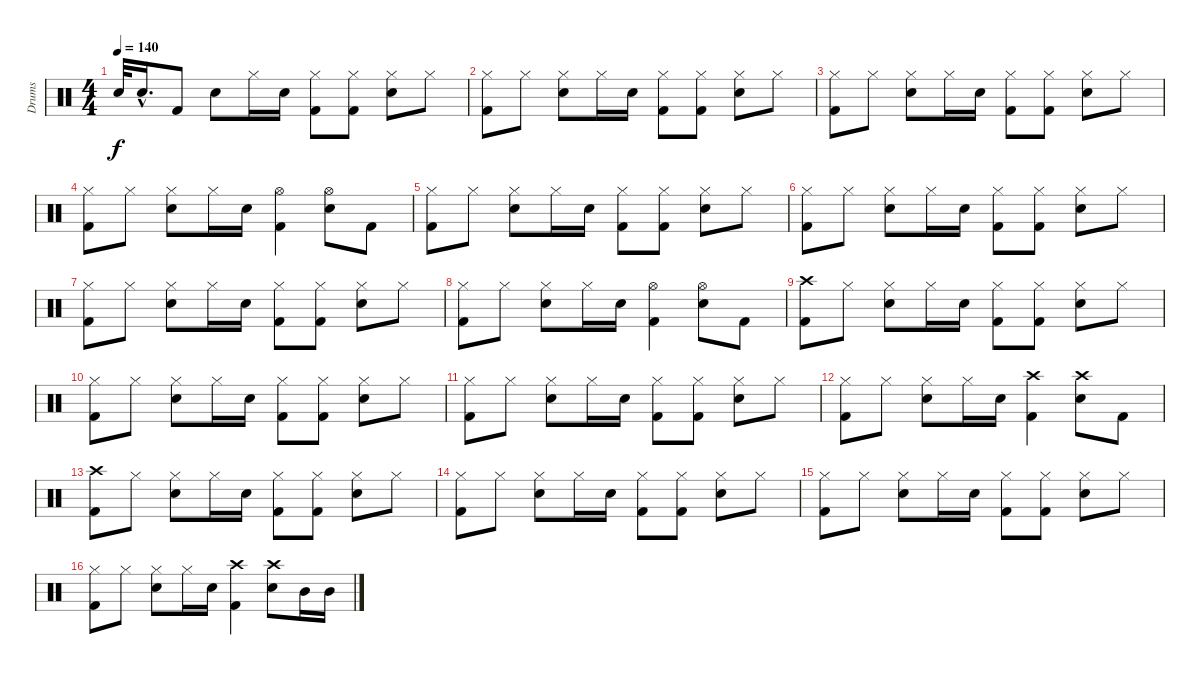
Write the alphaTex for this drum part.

\track ("Drums" "Drums") {instrument percussion}
\staff {score}
\articulation defaults
\ts (4 4)
\tempo 140
\clef neutral
\ks c "Snare (hit) 2".32{dy f} "Snare (hit) 2"{hac}.16{d} "Kick (hit) 2".8 "Snare (hit) 2".8 "Hi-Hat (closed)".16 "Snare (hit) 2".16
("Hi-Hat (closed)" "Kick (hit) 2").8 ("Hi-Hat (closed)" "Kick (hit) 2").8 ("Hi-Hat (closed)" "Snare (hit) 2").8 "Hi-Hat (closed)".8 |
("Hi-Hat (closed)" "Kick (hit) 2").8 "Hi-Hat (closed)".8 ("Hi-Hat (closed)" "Snare (hit) 2").8 "Hi-Hat (closed)".16 "Snare (hit) 2".16 ("Hi-Hat (closed)" "Kick (hit) 2").8 ("Hi-Hat (closed)" "Kick (hit) 2").8 ("Hi-Hat (closed)" "Snare (hit) 2").8 "Hi-Hat (closed)".8 |
("Hi-Hat (closed)" "Kick (hit) 2").8 "Hi-Hat (closed)".8 ("Hi-Hat (closed)" "Snare (hit) 2").8 "Hi-Hat (closed)".16 "Snare (hit) 2".16 ("Hi-Hat (closed)" "Kick (hit) 2").8 ("Hi-Hat (closed)" "Kick (hit) 2").8 ("Hi-Hat (closed)" "Snare (hit) 2").8 "Hi-Hat (closed)".8 |
("Hi-Hat (closed)" "Kick (hit) 2").8 "Hi-Hat (closed)".8 ("Hi-Hat (closed)" "Snare (hit) 2").8 "Hi-Hat (closed)".16 "Snare (hit) 2".16 ("Hi-Hat (open)" "Kick (hit) 2").4 ("Hi-Hat (open)" "Snare (hit) 2").8 "Kick (hit) 2".8 |
("Hi-Hat (closed)" "Kick (hit) 2").8 "Hi-Hat (closed)".8 ("Hi-Hat (closed)" "Snare (hit) 2").8 "Hi-Hat (closed)".16 "Snare (hit) 2".16 ("Hi-Hat (closed)" "Kick (hit) 2").8 ("Hi-Hat (closed)" "Kick (hit) 2").8 ("Hi-Hat (closed)" "Snare (hit) 2").8 "Hi-Hat (closed)".8 |
("Hi-Hat (closed)" "Kick (hit) 2").8 "Hi-Hat (closed)".8 ("Hi-Hat (closed)" "Snare (hit) 2").8 "Hi-Hat (closed)".16 "Snare (hit) 2".16 ("Hi-Hat (closed)" "Kick (hit) 2").8 ("Hi-Hat (closed)" "Kick (hit) 2").8 ("Hi-Hat (closed)" "Snare (hit) 2").8 "Hi-Hat (closed)".8 |
("Hi-Hat (closed)" "Kick (hit) 2").8 "Hi-Hat (closed)".8 ("Hi-Hat (closed)" "Snare (hit) 2").8 "Hi-Hat (closed)".16 "Snare (hit) 2".16 ("Hi-Hat (closed)" "Kick (hit) 2").8 ("Hi-Hat (closed)" "Kick (hit) 2").8 ("Hi-Hat (closed)" "Snare (hit) 2").8 "Hi-Hat (closed)".8 |
("Hi-Hat (closed)" "Kick (hit) 2").8 "Hi-Hat (closed)".8 ("Hi-Hat (closed)" "Snare (hit) 2").8 "Hi-Hat (closed)".16 "Snare (hit) 2".16 ("Hi-Hat (open)" "Kick (hit) 2").4 ("Hi-Hat (open)" "Snare (hit) 2").8 "Kick (hit) 2".8 |
("Crash high (hit)" "Kick (hit) 2").8 "Hi-Hat (closed)".8 ("Hi-Hat (closed)" "Snare (hit) 2").8 "Hi-Hat (closed)".16 "Snare (hit) 2".16 ("Hi-Hat (closed)" "Kick (hit) 2").8 ("Hi-Hat (closed)" "Kick (hit) 2").8 ("Hi-Hat (closed)" "Snare (hit) 2").8 "Hi-Hat (closed)".8 |
("Hi-Hat (closed)" "Kick (hit) 2").8 "Hi-Hat (closed)".8 ("Hi-Hat (closed)" "Snare (hit) 2").8 "Hi-Hat (closed)".16 "Snare (hit) 2".16 ("Hi-Hat (closed)" "Kick (hit) 2").8 ("Hi-Hat (closed)" "Kick (hit) 2").8 ("Hi-Hat (closed)" "Snare (hit) 2").8 "Hi-Hat (closed)".8 |
("Hi-Hat (closed)" "Kick (hit) 2").8 "Hi-Hat (closed)".8 ("Hi-Hat (closed)" "Snare (hit) 2").8 "Hi-Hat (closed)".16 "Snare (hit) 2".16 ("Hi-Hat (closed)" "Kick (hit) 2").8 ("Hi-Hat (closed)" "Kick (hit) 2").8 ("Hi-Hat (closed)" "Snare (hit) 2").8 "Hi-Hat (closed)".8 |
("Hi-Hat (closed)" "Kick (hit) 2").8 "Hi-Hat (closed)".8 ("Hi-Hat (closed)" "Snare (hit) 2").8 "Hi-Hat (closed)".16 "Snare (hit) 2".16 ("Crash high (hit)" "Kick (hit) 2").4 ("Crash high (hit)" "Snare (hit) 2").8 "Kick (hit) 2".8 |
("Crash high (hit)" "Kick (hit) 2").8 "Hi-Hat (closed)".8 ("Hi-Hat (closed)" "Snare (hit) 2").8 "Hi-Hat (closed)".16 "Snare (hit) 2".16 ("Hi-Hat (closed)" "Kick (hit) 2").8 ("Hi-Hat (closed)" "Kick (hit) 2").8 ("Hi-Hat (closed)" "Snare (hit) 2").8 "Hi-Hat (closed)".8 |
("Hi-Hat (closed)" "Kick (hit) 2").8 "Hi-Hat (closed)".8 ("Hi-Hat (closed)" "Snare (hit) 2").8 "Hi-Hat (closed)".16 "Snare (hit) 2".16 ("Hi-Hat (closed)" "Kick (hit) 2").8 ("Hi-Hat (closed)" "Kick (hit) 2").8 ("Hi-Hat (closed)" "Snare (hit) 2").8 "Hi-Hat (closed)".8 |
("Hi-Hat (closed)" "Kick (hit) 2").8 "Hi-Hat (closed)".8 ("Hi-Hat (closed)" "Snare (hit) 2").8 "Hi-Hat (closed)".16 "Snare (hit) 2".16 ("Hi-Hat (closed)" "Kick (hit) 2").8 ("Hi-Hat (closed)" "Kick (hit) 2").8 ("Hi-Hat (closed)" "Snare (hit) 2").8 "Hi-Hat (closed)".8 |
("Hi-Hat (closed)" "Kick (hit) 2").8 "Hi-Hat (closed)".8 ("Hi-Hat (closed)" "Snare (hit) 2").8 "Hi-Hat (closed)".16 "Snare (hit) 2".16 ("Crash high (hit)" "Kick (hit) 2").4 ("Crash high (hit)" "Snare (hit) 2").8 "Mid Tom (hit)".16 "Mid Tom (hit)".16
